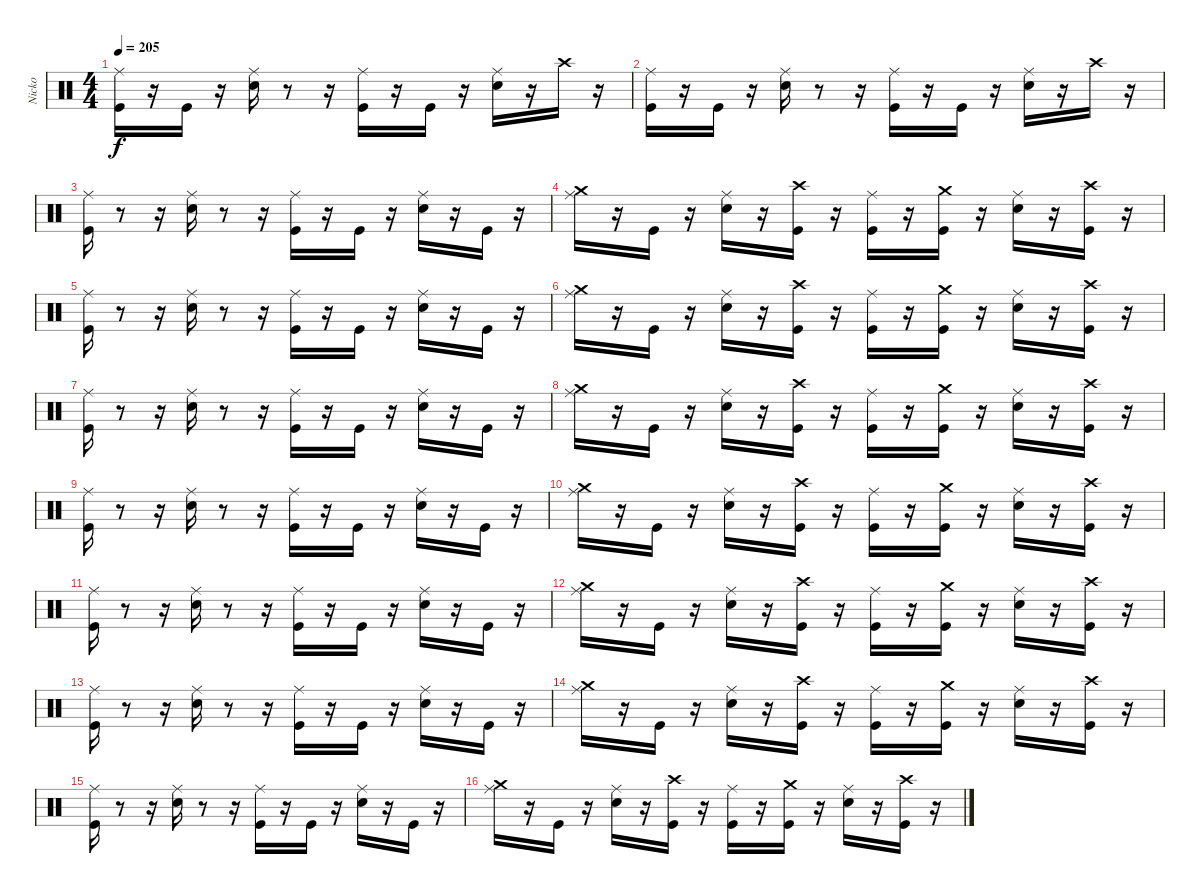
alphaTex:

\track ("Nicko" "Nicko") {instrument percussion}
\staff {score}
\articulation defaults
\ts (4 4)
\tempo 205
\clef neutral
\ks c
("Kick (hit)" "Ride (middle)").16{dy f} r.16 "Kick (hit)".16 r.16 ("Snare (hit) 2" "Ride (middle)").16 r.8 r.16 ("Ride (middle)" "Kick (hit)").16 r.16 "Kick (hit)".16 r.16 ("Snare (hit) 2" "Ride (middle)").16 r.16 "Crash high (hit)".16 r.16 |
("Kick (hit)" "Ride (middle)").16 r.16 "Kick (hit)".16 r.16 ("Snare (hit) 2" "Ride (middle)").16 r.8 r.16 ("Ride (middle)" "Kick (hit)").16 r.16 "Kick (hit)".16 r.16 ("Snare (hit) 2" "Ride (middle)").16 r.16 "Crash high (hit)".16{volume 16} r.16 |
("Ride (middle)" "Kick (hit)").16 r.8 r.16 ("Ride (middle)" "Snare (hit) 2").16 r.8 r.16 ("Ride (middle)" "Kick (hit)").16 r.16 "Kick (hit)".16 r.16 ("Ride (middle)" "Snare (hit) 2").16 r.16 "Kick (hit)".16 r.16 |
("Ride (middle)" "Crash medium (hit)").16 r.16 "Kick (hit)".16 r.16 ("Ride (middle)" "Snare (hit) 2").16 r.16 ("Kick (hit)" "Crash high (hit)").16 r.16 ("Ride (middle)" "Kick (hit)").16 r.16 ("Kick (hit)" "Crash medium (hit)").16 r.16 ("Snare (hit) 2" "Ride (middle)").16 r.16 ("Kick (hit)" "Crash high (hit)").16 r.16 |
("Ride (middle)" "Kick (hit)").16 r.8 r.16 ("Ride (middle)" "Snare (hit) 2").16 r.8 r.16 ("Ride (middle)" "Kick (hit)").16 r.16 "Kick (hit)".16 r.16 ("Ride (middle)" "Snare (hit) 2").16 r.16 "Kick (hit)".16 r.16 |
("Ride (middle)" "Crash medium (hit)").16 r.16 "Kick (hit)".16 r.16 ("Ride (middle)" "Snare (hit) 2").16 r.16 ("Kick (hit)" "Crash high (hit)").16 r.16 ("Ride (middle)" "Kick (hit)").16 r.16 ("Kick (hit)" "Crash medium (hit)").16 r.16 ("Snare (hit) 2" "Ride (middle)").16 r.16 ("Kick (hit)" "Crash high (hit)").16 r.16 |
("Ride (middle)" "Kick (hit)").16 r.8 r.16 ("Ride (middle)" "Snare (hit) 2").16 r.8 r.16 ("Ride (middle)" "Kick (hit)").16 r.16 "Kick (hit)".16 r.16 ("Ride (middle)" "Snare (hit) 2").16 r.16 "Kick (hit)".16 r.16 |
("Ride (middle)" "Crash medium (hit)").16 r.16 "Kick (hit)".16 r.16 ("Ride (middle)" "Snare (hit) 2").16 r.16 ("Kick (hit)" "Crash high (hit)").16 r.16 ("Ride (middle)" "Kick (hit)").16 r.16 ("Kick (hit)" "Crash medium (hit)").16 r.16 ("Snare (hit) 2" "Ride (middle)").16 r.16 ("Kick (hit)" "Crash high (hit)").16 r.16 |
("Ride (middle)" "Kick (hit)").16 r.8 r.16 ("Ride (middle)" "Snare (hit) 2").16 r.8 r.16 ("Ride (middle)" "Kick (hit)").16 r.16 "Kick (hit)".16 r.16 ("Ride (middle)" "Snare (hit) 2").16 r.16 "Kick (hit)".16 r.16 |
("Ride (middle)" "Crash medium (hit)").16 r.16 "Kick (hit)".16 r.16 ("Ride (middle)" "Snare (hit) 2").16 r.16 ("Kick (hit)" "Crash high (hit)").16 r.16 ("Ride (middle)" "Kick (hit)").16 r.16 ("Kick (hit)" "Crash medium (hit)").16 r.16 ("Snare (hit) 2" "Ride (middle)").16 r.16 ("Kick (hit)" "Crash high (hit)").16 r.16 |
("Ride (middle)" "Kick (hit)").16 r.8 r.16 ("Ride (middle)" "Snare (hit) 2").16 r.8 r.16 ("Ride (middle)" "Kick (hit)").16 r.16 "Kick (hit)".16 r.16 ("Ride (middle)" "Snare (hit) 2").16 r.16 "Kick (hit)".16 r.16 |
("Ride (middle)" "Crash medium (hit)").16 r.16 "Kick (hit)".16 r.16 ("Ride (middle)" "Snare (hit) 2").16 r.16 ("Kick (hit)" "Crash high (hit)").16 r.16 ("Ride (middle)" "Kick (hit)").16 r.16 ("Kick (hit)" "Crash medium (hit)").16 r.16 ("Snare (hit) 2" "Ride (middle)").16 r.16 ("Crash high (hit)" "Kick (hit)").16 r.16 |
("Ride (middle)" "Kick (hit)").16 r.8 r.16 ("Ride (middle)" "Snare (hit) 2").16 r.8 r.16 ("Ride (middle)" "Kick (hit)").16 r.16 "Kick (hit)".16 r.16 ("Ride (middle)" "Snare (hit) 2").16 r.16 "Kick (hit)".16 r.16 |
("Ride (middle)" "Crash medium (hit)").16 r.16 "Kick (hit)".16 r.16 ("Ride (middle)" "Snare (hit) 2").16 r.16 ("Kick (hit)" "Crash high (hit)").16 r.16 ("Ride (middle)" "Kick (hit)").16 r.16 ("Kick (hit)" "Crash medium (hit)").16 r.16 ("Snare (hit) 2" "Ride (middle)").16 r.16 ("Kick (hit)" "Crash high (hit)").16 r.16 |
("Ride (middle)" "Kick (hit)").16 r.8 r.16 ("Ride (middle)" "Snare (hit) 2").16 r.8 r.16 ("Ride (middle)" "Kick (hit)").16 r.16 "Kick (hit)".16 r.16 ("Ride (middle)" "Snare (hit) 2").16 r.16 "Kick (hit)".16 r.16 |
("Ride (middle)" "Crash medium (hit)").16 r.16 "Kick (hit)".16 r.16 ("Ride (middle)" "Snare (hit) 2").16 r.16 ("Kick (hit)" "Crash high (hit)").16 r.16 ("Ride (middle)" "Kick (hit)").16 r.16 ("Kick (hit)" "Crash medium (hit)").16 r.16 ("Snare (hit) 2" "Ride (middle)").16 r.16 ("Kick (hit)" "Crash high (hit)").16 r.16
